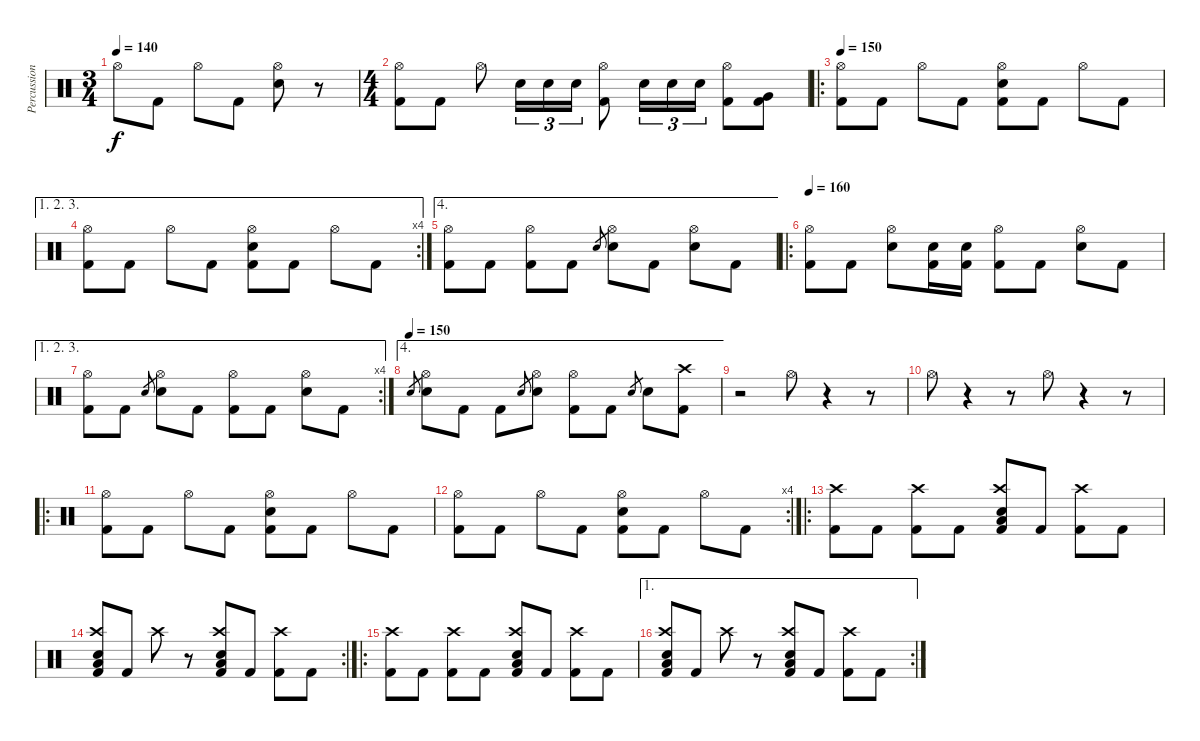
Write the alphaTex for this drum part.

\track ("Percussion" "Percussion") {instrument percussion}
\staff {score}
\articulation defaults
\ts (3 4)
\tempo 140
\clef neutral
\ks c "Hi-Hat (open)".8{dy f} "Kick (hit) 2".8 "Hi-Hat (open)".8 "Kick (hit) 2".8
("Hi-Hat (open)" "Electric Snare (hit)").8 r.8 |
\ts (4 4)
("Hi-Hat (open)" "Kick (hit) 2").8 "Kick (hit) 2".8 "Hi-Hat (open)".8 "Electric Snare (hit)".16{tu (3 2)} "Electric Snare (hit)".16{tu (3 2)} "Electric Snare (hit)".16{tu (3 2)} ("Hi-Hat (open)" "Kick (hit) 2").8 "Electric Snare (hit)".16{tu (3 2)} "Electric Snare (hit)".16{tu (3 2)} "Electric Snare (hit)".16{tu (3 2)} ("Hi-Hat (open)" "Kick (hit) 2").8 ("Very Low Tom (hit)" "Kick (hit) 2").8 |
\ro
\tempo 150
("Hi-Hat (open)" "Kick (hit) 2").8 "Kick (hit) 2".8 "Hi-Hat (open)".8 "Kick (hit) 2".8 ("Hi-Hat (open)" "Electric Snare (hit)" "Kick (hit) 2").8 "Kick (hit) 2".8 "Hi-Hat (open)".8 "Kick (hit) 2".8 |
\ae (1 2 3)
\rc 4
("Hi-Hat (open)" "Kick (hit) 2").8 "Kick (hit) 2".8 "Hi-Hat (open)".8 "Kick (hit) 2".8 ("Hi-Hat (open)" "Electric Snare (hit)" "Kick (hit) 2").8 "Kick (hit) 2".8 "Hi-Hat (open)".8 "Kick (hit) 2".8 |
\ae 4
("Hi-Hat (open)" "Kick (hit) 2").8 "Kick (hit) 2".8 ("Hi-Hat (open)" "Kick (hit) 2").8 "Kick (hit) 2".8 "Electric Snare (hit)".8{gr} ("Hi-Hat (open)" "Electric Snare (hit)").8 "Kick (hit) 2".8 ("Hi-Hat (open)" "Electric Snare (hit)").8 "Kick (hit) 2".8 |
\ro
\tempo 160
("Hi-Hat (open)" "Kick (hit) 2").8 "Kick (hit) 2".8 ("Hi-Hat (open)" "Electric Snare (hit)").8 ("Electric Snare (hit)" "Kick (hit) 2").16 ("Electric Snare (hit)" "Kick (hit) 2").16 ("Hi-Hat (open)" "Kick (hit) 2").8 "Kick (hit) 2".8 ("Hi-Hat (open)" "Electric Snare (hit)").8 "Kick (hit) 2".8 |
\ae (1 2 3)
\rc 4
("Hi-Hat (open)" "Kick (hit) 2").8 "Kick (hit) 2".8 "Electric Snare (hit)".8{gr} ("Hi-Hat (open)" "Electric Snare (hit)").8 "Kick (hit) 2".8 ("Hi-Hat (open)" "Kick (hit) 2").8 "Kick (hit) 2".8 ("Hi-Hat (open)" "Electric Snare (hit)").8 "Kick (hit) 2".8 |
\ae 4
\tempo (150)
"Electric Snare (hit)".8{gr} ("Hi-Hat (open)" "Electric Snare (hit)").8 "Kick (hit) 2".8 "Kick (hit) 2".8 "Electric Snare (hit)".8{gr} ("Hi-Hat (open)" "Electric Snare (hit)").8 ("Hi-Hat (open)" "Kick (hit) 2").8 "Kick (hit) 2".8 "Electric Snare (hit)".8{gr} "Electric Snare (hit)".8 ("Crash high (hit)" "Kick (hit) 2").8 |
r.2 "Hi-Hat (open)".8 r.4 r.8 |
"Hi-Hat (open)".8 r.4 r.8 "Hi-Hat (open)".8 r.4 r.8 |
\ro
("Hi-Hat (open)" "Kick (hit) 2").8 "Kick (hit) 2".8 "Hi-Hat (open)".8 "Kick (hit) 2".8 ("Hi-Hat (open)" "Electric Snare (hit)" "Kick (hit) 2").8 "Kick (hit) 2".8 "Hi-Hat (open)".8 "Kick (hit) 2".8 |
\rc 4
("Hi-Hat (open)" "Kick (hit) 2").8 "Kick (hit) 2".8 "Hi-Hat (open)".8 "Kick (hit) 2".8 ("Hi-Hat (open)" "Electric Snare (hit)" "Kick (hit) 2").8 "Kick (hit) 2".8 "Hi-Hat (open)".8 "Kick (hit) 2".8 |
\ro
("Crash high (hit)" "Kick (hit) 2").8 "Kick (hit) 2".8 ("Crash high (hit)" "Kick (hit) 2").8 "Kick (hit) 2".8 ("Crash high (hit)" "Electric Snare (hit)" "Low Floor Tom (hit)" "Kick (hit) 2").8 "Kick (hit) 2".8 ("Crash high (hit)" "Kick (hit) 2").8 "Kick (hit) 2".8 |
\rc 2
("Crash high (hit)" "Electric Snare (hit)" "Low Floor Tom (hit)" "Kick (hit) 2").8 "Kick (hit) 2".8 "Crash high (hit)".8 r.8 ("Crash high (hit)" "Electric Snare (hit)" "Low Floor Tom (hit)" "Kick (hit) 2").8 "Kick (hit) 2".8 ("Crash high (hit)" "Kick (hit) 2").8 "Kick (hit) 2".8 |
\ro
("Crash high (hit)" "Kick (hit) 2").8 "Kick (hit) 2".8 ("Crash high (hit)" "Kick (hit) 2").8 "Kick (hit) 2".8 ("Crash high (hit)" "Electric Snare (hit)" "Low Floor Tom (hit)" "Kick (hit) 2").8 "Kick (hit) 2".8 ("Crash high (hit)" "Kick (hit) 2").8 "Kick (hit) 2".8 |
\ae 1
\rc 2
("Crash high (hit)" "Electric Snare (hit)" "Low Floor Tom (hit)" "Kick (hit) 2").8 "Kick (hit) 2".8 "Crash high (hit)".8 r.8 ("Crash high (hit)" "Electric Snare (hit)" "Low Floor Tom (hit)" "Kick (hit) 2").8 "Kick (hit) 2".8 ("Crash high (hit)" "Kick (hit) 2").8 "Kick (hit) 2".8
